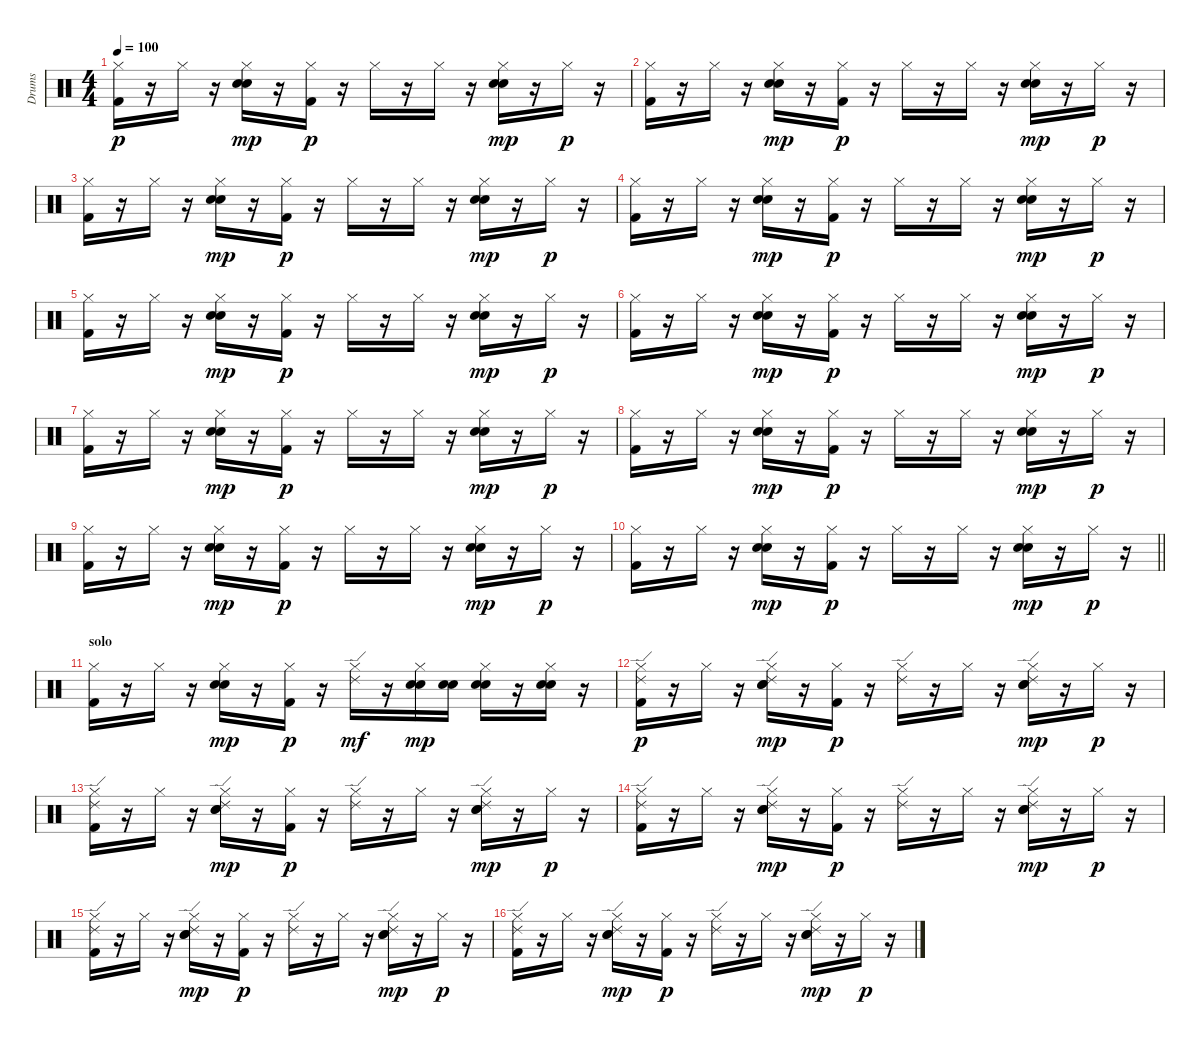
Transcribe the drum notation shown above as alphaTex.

\track ("Drums" "Drums") {instrument percussion}
\staff {score}
\articulation defaults
\ts (4 4)
\tempo 100
\clef neutral
\ks c
("Hi-Hat (closed)" "Kick (hit) 2").16{dy p} r.16 "Hi-Hat (closed)".16 r.16 ("Hi-Hat (closed)" "Electric Snare (hit)" "Snare (hit) 2").16{dy mp} r.16 ("Hi-Hat (closed)" "Kick (hit) 2").16{dy p} r.16 "Hi-Hat (closed)".16 r.16 "Hi-Hat (closed)".16 r.16 ("Hi-Hat (closed)" "Electric Snare (hit)" "Snare (hit) 2").16{dy mp} r.16 "Hi-Hat (closed)".16{dy p} r.16 |
("Hi-Hat (closed)" "Kick (hit) 2").16 r.16 "Hi-Hat (closed)".16 r.16 ("Hi-Hat (closed)" "Electric Snare (hit)" "Snare (hit) 2").16{dy mp} r.16 ("Hi-Hat (closed)" "Kick (hit) 2").16{dy p} r.16 "Hi-Hat (closed)".16 r.16 "Hi-Hat (closed)".16 r.16 ("Hi-Hat (closed)" "Electric Snare (hit)" "Snare (hit) 2").16{dy mp} r.16 "Hi-Hat (closed)".16{dy p} r.16 |
("Hi-Hat (closed)" "Kick (hit) 2").16 r.16 "Hi-Hat (closed)".16 r.16 ("Hi-Hat (closed)" "Electric Snare (hit)" "Snare (hit) 2").16{dy mp} r.16 ("Hi-Hat (closed)" "Kick (hit) 2").16{dy p} r.16 "Hi-Hat (closed)".16 r.16 "Hi-Hat (closed)".16 r.16 ("Hi-Hat (closed)" "Electric Snare (hit)" "Snare (hit) 2").16{dy mp} r.16 "Hi-Hat (closed)".16{dy p} r.16 |
("Hi-Hat (closed)" "Kick (hit) 2").16 r.16 "Hi-Hat (closed)".16 r.16 ("Hi-Hat (closed)" "Electric Snare (hit)" "Snare (hit) 2").16{dy mp} r.16 ("Hi-Hat (closed)" "Kick (hit) 2").16{dy p} r.16 "Hi-Hat (closed)".16 r.16 "Hi-Hat (closed)".16 r.16 ("Hi-Hat (closed)" "Electric Snare (hit)" "Snare (hit) 2").16{dy mp} r.16 "Hi-Hat (closed)".16{dy p} r.16 |
("Hi-Hat (closed)" "Kick (hit) 2").16 r.16 "Hi-Hat (closed)".16 r.16 ("Hi-Hat (closed)" "Electric Snare (hit)" "Snare (hit) 2").16{dy mp} r.16 ("Hi-Hat (closed)" "Kick (hit) 2").16{dy p} r.16 "Hi-Hat (closed)".16 r.16 "Hi-Hat (closed)".16 r.16 ("Hi-Hat (closed)" "Electric Snare (hit)" "Snare (hit) 2").16{dy mp} r.16 "Hi-Hat (closed)".16{dy p} r.16 |
("Hi-Hat (closed)" "Kick (hit) 2").16 r.16 "Hi-Hat (closed)".16 r.16 ("Hi-Hat (closed)" "Electric Snare (hit)" "Snare (hit) 2").16{dy mp} r.16 ("Hi-Hat (closed)" "Kick (hit) 2").16{dy p} r.16 "Hi-Hat (closed)".16 r.16 "Hi-Hat (closed)".16 r.16 ("Hi-Hat (closed)" "Electric Snare (hit)" "Snare (hit) 2").16{dy mp} r.16 "Hi-Hat (closed)".16{dy p} r.16 |
("Hi-Hat (closed)" "Kick (hit) 2").16 r.16 "Hi-Hat (closed)".16 r.16 ("Hi-Hat (closed)" "Electric Snare (hit)" "Snare (hit) 2").16{dy mp} r.16 ("Hi-Hat (closed)" "Kick (hit) 2").16{dy p} r.16 "Hi-Hat (closed)".16 r.16 "Hi-Hat (closed)".16 r.16 ("Hi-Hat (closed)" "Electric Snare (hit)" "Snare (hit) 2").16{dy mp} r.16 "Hi-Hat (closed)".16{dy p} r.16 |
("Hi-Hat (closed)" "Kick (hit) 2").16 r.16 "Hi-Hat (closed)".16 r.16 ("Hi-Hat (closed)" "Electric Snare (hit)" "Snare (hit) 2").16{dy mp} r.16 ("Hi-Hat (closed)" "Kick (hit) 2").16{dy p} r.16 "Hi-Hat (closed)".16 r.16 "Hi-Hat (closed)".16 r.16 ("Hi-Hat (closed)" "Electric Snare (hit)" "Snare (hit) 2").16{dy mp} r.16 "Hi-Hat (closed)".16{dy p} r.16 |
("Hi-Hat (closed)" "Kick (hit) 2").16 r.16 "Hi-Hat (closed)".16 r.16 ("Hi-Hat (closed)" "Electric Snare (hit)" "Snare (hit) 2").16{dy mp} r.16 ("Hi-Hat (closed)" "Kick (hit) 2").16{dy p} r.16 "Hi-Hat (closed)".16 r.16 "Hi-Hat (closed)".16 r.16 ("Hi-Hat (closed)" "Electric Snare (hit)" "Snare (hit) 2").16{dy mp} r.16 "Hi-Hat (closed)".16{dy p} r.16 |
\barLineRight lightlight
("Hi-Hat (closed)" "Kick (hit) 2").16 r.16 "Hi-Hat (closed)".16 r.16 ("Hi-Hat (closed)" "Electric Snare (hit)" "Snare (hit) 2").16{dy mp} r.16 ("Hi-Hat (closed)" "Kick (hit) 2").16{dy p} r.16 "Hi-Hat (closed)".16 r.16 "Hi-Hat (closed)".16 r.16 ("Hi-Hat (closed)" "Electric Snare (hit)" "Snare (hit) 2").16{dy mp} r.16 "Hi-Hat (closed)".16{dy p} r.16 |
\section ("" "solo")
("Hi-Hat (closed)" "Kick (hit) 2").16 r.16 "Hi-Hat (closed)".16 r.16 ("Hi-Hat (closed)" "Electric Snare (hit)" "Snare (hit) 2").16{dy mp} r.16 ("Hi-Hat (closed)" "Kick (hit) 2").16{dy p} r.16 ("Hi-Hat (closed)" "Ride (edge) 2").16{dy mf} r.16 ("Hi-Hat (closed)" "Electric Snare (hit)" "Snare (hit) 2").16{dy mp} ("Electric Snare (hit)" "Snare (hit) 2").16 ("Hi-Hat (closed)" "Electric Snare (hit)" "Snare (hit) 2").16 r.16 ("Hi-Hat (closed)" "Electric Snare (hit)" "Snare (hit) 2").16 r.16 |
("Hi-Hat (closed)" "Ride (edge) 2" "Kick (hit) 2").16{dy p} r.16 "Hi-Hat (closed)".16 r.16 ("Hi-Hat (closed)" "Ride (edge) 2" "Electric Snare (hit)" "Snare (hit) 2").16{dy mp} r.16 ("Hi-Hat (closed)" "Kick (hit) 2").16{dy p} r.16 ("Hi-Hat (closed)" "Ride (edge) 2").16 r.16 "Hi-Hat (closed)".16 r.16 ("Hi-Hat (closed)" "Ride (edge) 2" "Electric Snare (hit)" "Snare (hit) 2").16{dy mp} r.16 "Hi-Hat (closed)".16{dy p} r.16 |
("Hi-Hat (closed)" "Ride (edge) 2" "Kick (hit) 2").16 r.16 "Hi-Hat (closed)".16 r.16 ("Hi-Hat (closed)" "Ride (edge) 2" "Electric Snare (hit)" "Snare (hit) 2").16{dy mp} r.16 ("Hi-Hat (closed)" "Kick (hit) 2").16{dy p} r.16 ("Hi-Hat (closed)" "Ride (edge) 2").16 r.16 "Hi-Hat (closed)".16 r.16 ("Hi-Hat (closed)" "Ride (edge) 2" "Electric Snare (hit)" "Snare (hit) 2").16{dy mp} r.16 "Hi-Hat (closed)".16{dy p} r.16 |
("Hi-Hat (closed)" "Ride (edge) 2" "Kick (hit) 2").16 r.16 "Hi-Hat (closed)".16 r.16 ("Hi-Hat (closed)" "Ride (edge) 2" "Electric Snare (hit)" "Snare (hit) 2").16{dy mp} r.16 ("Hi-Hat (closed)" "Kick (hit) 2").16{dy p} r.16 ("Hi-Hat (closed)" "Ride (edge) 2").16 r.16 "Hi-Hat (closed)".16 r.16 ("Hi-Hat (closed)" "Ride (edge) 2" "Electric Snare (hit)" "Snare (hit) 2").16{dy mp} r.16 "Hi-Hat (closed)".16{dy p} r.16 |
("Hi-Hat (closed)" "Ride (edge) 2" "Kick (hit) 2").16 r.16 "Hi-Hat (closed)".16 r.16 ("Hi-Hat (closed)" "Ride (edge) 2" "Electric Snare (hit)" "Snare (hit) 2").16{dy mp} r.16 ("Hi-Hat (closed)" "Kick (hit) 2").16{dy p} r.16 ("Hi-Hat (closed)" "Ride (edge) 2").16 r.16 "Hi-Hat (closed)".16 r.16 ("Hi-Hat (closed)" "Ride (edge) 2" "Electric Snare (hit)" "Snare (hit) 2").16{dy mp} r.16 "Hi-Hat (closed)".16{dy p} r.16 |
("Hi-Hat (closed)" "Ride (edge) 2" "Kick (hit) 2").16 r.16 "Hi-Hat (closed)".16 r.16 ("Hi-Hat (closed)" "Ride (edge) 2" "Electric Snare (hit)" "Snare (hit) 2").16{dy mp} r.16 ("Hi-Hat (closed)" "Kick (hit) 2").16{dy p} r.16 ("Hi-Hat (closed)" "Ride (edge) 2").16 r.16 "Hi-Hat (closed)".16 r.16 ("Hi-Hat (closed)" "Ride (edge) 2" "Electric Snare (hit)" "Snare (hit) 2").16{dy mp} r.16 "Hi-Hat (closed)".16{dy p} r.16
